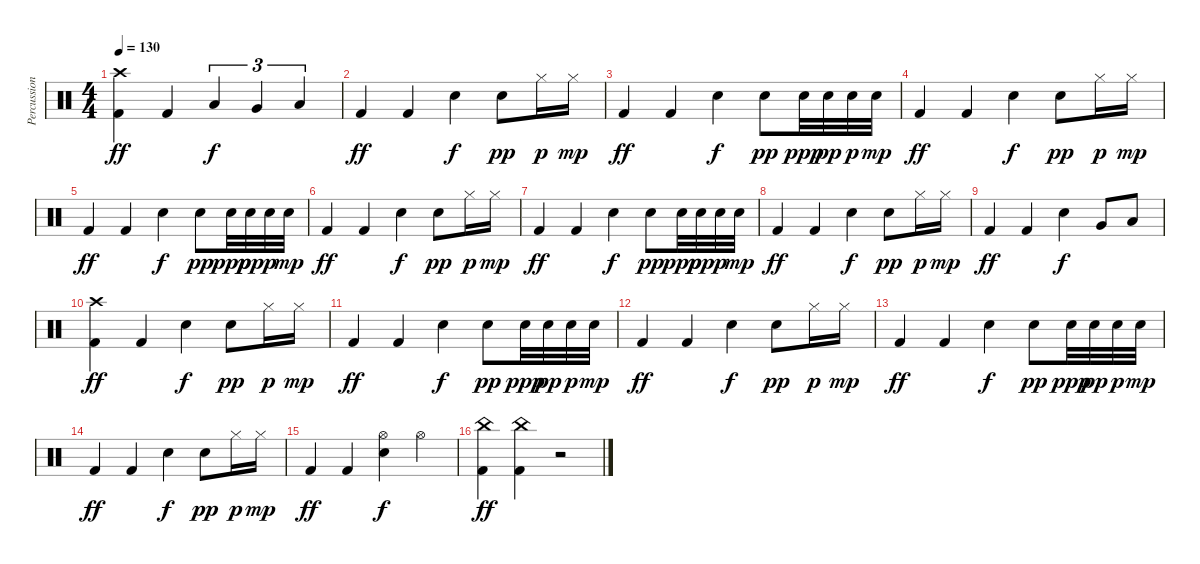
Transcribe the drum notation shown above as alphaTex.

\track ("Percussions" "Percussion") {instrument percussion}
\staff {score}
\articulation defaults
\ts (4 4)
\tempo 130
\clef neutral
\ks c
("Crash high (hit)" "Kick (hit) 2").4{dy ff} "Kick (hit) 2".4 "Low Tom (hit)".4{tu (3 2) dy f} "Very Low Tom (hit)".4{tu (3 2)} "Low Floor Tom (hit)".4{tu (3 2)} |
"Kick (hit) 2".4{dy ff} "Kick (hit) 2".4 "Snare (hit) 2".4{dy f} "Snare (hit) 2".8{dy pp} "Hi-Hat (closed)".16{dy p} "Hi-Hat (closed)".16{dy mp} |
"Kick (hit) 2".4{dy ff} "Kick (hit) 2".4 "Snare (hit) 2".4{dy f} "Snare (hit) 2".8{dy pp} "Snare (hit) 2".32{dy ppp} "Snare (hit) 2".32{dy pp} "Snare (hit) 2".32{dy p} "Snare (hit) 2".32{dy mp} |
"Kick (hit) 2".4{dy ff} "Kick (hit) 2".4 "Snare (hit) 2".4{dy f} "Snare (hit) 2".8{dy pp} "Hi-Hat (closed)".16{dy p} "Hi-Hat (closed)".16{dy mp} |
"Kick (hit) 2".4{dy ff} "Kick (hit) 2".4 "Snare (hit) 2".4{dy f} "Snare (hit) 2".8{dy pp} "Snare (hit) 2".32{dy ppp} "Snare (hit) 2".32{dy pp} "Snare (hit) 2".32{dy p} "Snare (hit) 2".32{dy mp} |
"Kick (hit) 2".4{dy ff} "Kick (hit) 2".4 "Snare (hit) 2".4{dy f} "Snare (hit) 2".8{dy pp} "Hi-Hat (closed)".16{dy p} "Hi-Hat (closed)".16{dy mp} |
"Kick (hit) 2".4{dy ff} "Kick (hit) 2".4 "Snare (hit) 2".4{dy f} "Snare (hit) 2".8{dy pp} "Snare (hit) 2".32{dy ppp} "Snare (hit) 2".32{dy pp} "Snare (hit) 2".32{dy p} "Snare (hit) 2".32{dy mp} |
"Kick (hit) 2".4{dy ff} "Kick (hit) 2".4 "Snare (hit) 2".4{dy f} "Snare (hit) 2".8{dy pp} "Hi-Hat (closed)".16{dy p} "Hi-Hat (closed)".16{dy mp} |
"Kick (hit) 2".4{dy ff} "Kick (hit) 2".4 "Snare (hit) 2".4{dy f} "Very Low Tom (hit)".8 "Low Floor Tom (hit)".8 |
("Crash high (hit)" "Kick (hit) 2").4{dy ff} "Kick (hit) 2".4 "Snare (hit) 2".4{dy f} "Snare (hit) 2".8{dy pp} "Hi-Hat (closed)".16{dy p} "Hi-Hat (closed)".16{dy mp} |
"Kick (hit) 2".4{dy ff} "Kick (hit) 2".4 "Snare (hit) 2".4{dy f} "Snare (hit) 2".8{dy pp} "Snare (hit) 2".32{dy ppp} "Snare (hit) 2".32{dy pp} "Snare (hit) 2".32{dy p} "Snare (hit) 2".32{dy mp} |
"Kick (hit) 2".4{dy ff} "Kick (hit) 2".4 "Snare (hit) 2".4{dy f} "Snare (hit) 2".8{dy pp} "Hi-Hat (closed)".16{dy p} "Hi-Hat (closed)".16{dy mp} |
"Kick (hit) 2".4{dy ff} "Kick (hit) 2".4 "Snare (hit) 2".4{dy f} "Snare (hit) 2".8{dy pp} "Snare (hit) 2".32{dy ppp} "Snare (hit) 2".32{dy pp} "Snare (hit) 2".32{dy p} "Snare (hit) 2".32{dy mp} |
"Kick (hit) 2".4{dy ff} "Kick (hit) 2".4 "Snare (hit) 2".4{dy f} "Snare (hit) 2".8{dy pp} "Hi-Hat (closed)".16{dy p} "Hi-Hat (closed)".16{dy mp} |
"Kick (hit) 2".4{dy ff} "Kick (hit) 2".4 ("Snare (hit) 2" "Hi-Hat (open)").4{dy f} "Hi-Hat (open)".4 |
("China (hit)" "Kick (hit) 2").4{dy ff} ("China (hit)" "Kick (hit) 2").4 r.2
